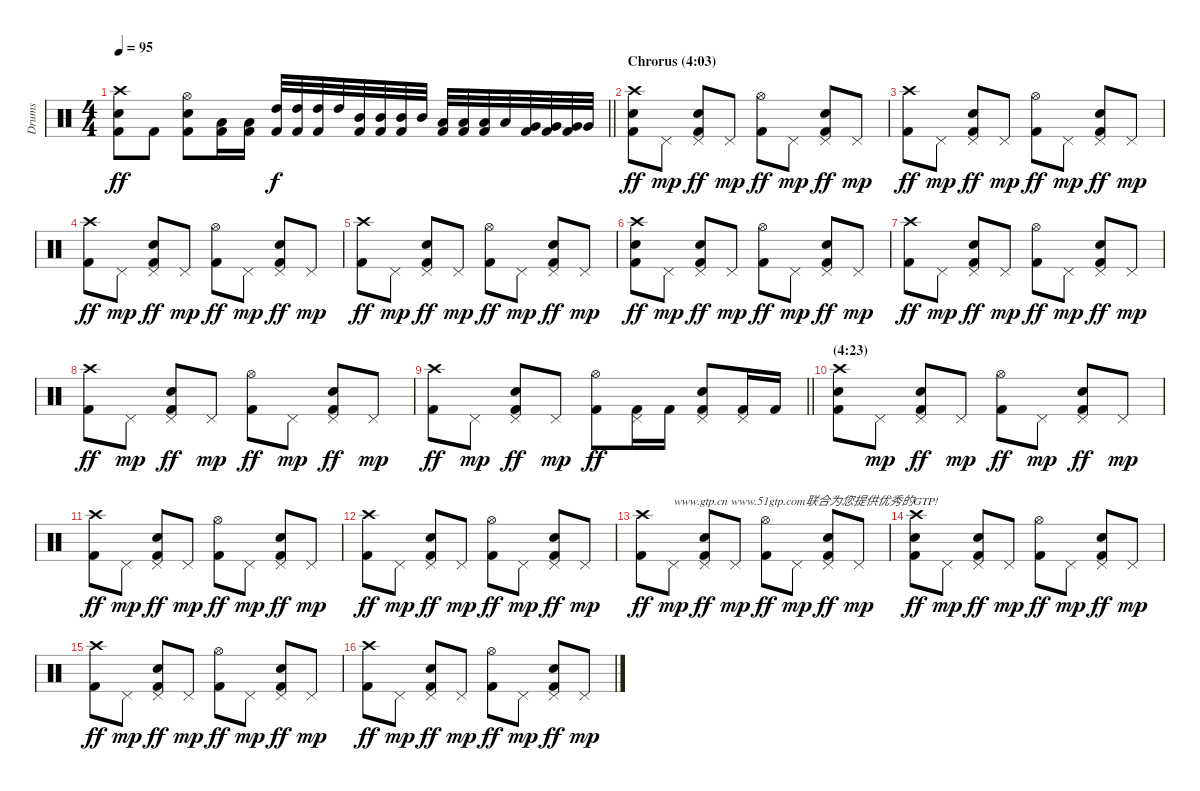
\track ("Drums" "Drums") {instrument percussion}
\staff {score}
\articulation defaults
\ts (4 4)
\tempo 95
\clef neutral
\barLineRight lightlight
\ks c
("Crash high (hit)" "Snare (hit) 2" "Kick (hit) 2").8{dy ff} "Kick (hit) 2".8 ("Hi-Hat (open)" "Snare (hit) 2" "Kick (hit) 2").8 ("Low Tom (hit)" "Kick (hit) 2").16 ("Low Tom (hit)" "Kick (hit) 2").16 ("High Tom (hit)" "Kick (hit) 2").32{dy f} ("High Tom (hit)" "Kick (hit) 2").32 ("High Tom (hit)" "Kick (hit) 2").32 "High Tom (hit)".32 ("Mid Tom (hit)" "Kick (hit) 2").32 ("Mid Tom (hit)" "Kick (hit) 2").32 ("Mid Tom (hit)" "Kick (hit) 2").32 "Mid Tom (hit)".32 ("Low Tom (hit)" "Kick (hit) 2").32 ("Low Tom (hit)" "Kick (hit) 2").32 ("Low Tom (hit)" "Kick (hit) 2").32 "Low Tom (hit)".32 ("Very Low Tom (hit)" "Kick (hit) 2").32 ("Very Low Tom (hit)" "Kick (hit) 2").32 ("Very Low Tom (hit)" "Kick (hit) 2").32 "Very Low Tom (hit)".32 |
\section ("" "Chrorus (4:03)")
("Crash high (hit)" "Snare (hit) 2" "Kick (hit) 2").8{dy ff} "Pedal Hi-Hat (hit)".8{dy mp} ("Pedal Hi-Hat (hit)" "Snare (hit) 2" "Kick (hit) 2").8{dy ff} "Pedal Hi-Hat (hit)".8{dy mp} ("Hi-Hat (open)" "Kick (hit) 2").8{dy ff} "Pedal Hi-Hat (hit)".8{dy mp} ("Pedal Hi-Hat (hit)" "Snare (hit) 2" "Kick (hit) 2").8{dy ff} "Pedal Hi-Hat (hit)".8{dy mp} |
("Crash high (hit)" "Kick (hit) 2").8{dy ff} "Pedal Hi-Hat (hit)".8{dy mp} ("Pedal Hi-Hat (hit)" "Snare (hit) 2" "Kick (hit) 2").8{dy ff} "Pedal Hi-Hat (hit)".8{dy mp} ("Hi-Hat (open)" "Kick (hit) 2").8{dy ff} "Pedal Hi-Hat (hit)".8{dy mp} ("Pedal Hi-Hat (hit)" "Snare (hit) 2" "Kick (hit) 2").8{dy ff} "Pedal Hi-Hat (hit)".8{dy mp} |
("Crash high (hit)" "Kick (hit) 2").8{dy ff} "Pedal Hi-Hat (hit)".8{dy mp} ("Pedal Hi-Hat (hit)" "Snare (hit) 2" "Kick (hit) 2").8{dy ff} "Pedal Hi-Hat (hit)".8{dy mp} ("Hi-Hat (open)" "Kick (hit) 2").8{dy ff} "Pedal Hi-Hat (hit)".8{dy mp} ("Pedal Hi-Hat (hit)" "Snare (hit) 2" "Kick (hit) 2").8{dy ff} "Pedal Hi-Hat (hit)".8{dy mp} |
("Crash high (hit)" "Kick (hit) 2").8{dy ff} "Pedal Hi-Hat (hit)".8{dy mp} ("Pedal Hi-Hat (hit)" "Snare (hit) 2" "Kick (hit) 2").8{dy ff} "Pedal Hi-Hat (hit)".8{dy mp} ("Hi-Hat (open)" "Kick (hit) 2").8{dy ff} "Pedal Hi-Hat (hit)".8{dy mp} ("Pedal Hi-Hat (hit)" "Snare (hit) 2" "Kick (hit) 2").8{dy ff} "Pedal Hi-Hat (hit)".8{dy mp} |
("Crash high (hit)" "Snare (hit) 2" "Kick (hit) 2").8{dy ff} "Pedal Hi-Hat (hit)".8{dy mp} ("Pedal Hi-Hat (hit)" "Snare (hit) 2" "Kick (hit) 2").8{dy ff} "Pedal Hi-Hat (hit)".8{dy mp} ("Hi-Hat (open)" "Kick (hit) 2").8{dy ff} "Pedal Hi-Hat (hit)".8{dy mp} ("Pedal Hi-Hat (hit)" "Snare (hit) 2" "Kick (hit) 2").8{dy ff} "Pedal Hi-Hat (hit)".8{dy mp} |
("Crash high (hit)" "Kick (hit) 2").8{dy ff} "Pedal Hi-Hat (hit)".8{dy mp} ("Pedal Hi-Hat (hit)" "Snare (hit) 2" "Kick (hit) 2").8{dy ff} "Pedal Hi-Hat (hit)".8{dy mp} ("Hi-Hat (open)" "Kick (hit) 2").8{dy ff} "Pedal Hi-Hat (hit)".8{dy mp} ("Pedal Hi-Hat (hit)" "Snare (hit) 2" "Kick (hit) 2").8{dy ff} "Pedal Hi-Hat (hit)".8{dy mp} |
("Crash high (hit)" "Kick (hit) 2").8{dy ff} "Pedal Hi-Hat (hit)".8{dy mp} ("Pedal Hi-Hat (hit)" "Snare (hit) 2" "Kick (hit) 2").8{dy ff} "Pedal Hi-Hat (hit)".8{dy mp} ("Hi-Hat (open)" "Kick (hit) 2").8{dy ff} "Pedal Hi-Hat (hit)".8{dy mp} ("Pedal Hi-Hat (hit)" "Snare (hit) 2" "Kick (hit) 2").8{dy ff} "Pedal Hi-Hat (hit)".8{dy mp} |
\barLineRight lightlight
("Crash high (hit)" "Kick (hit) 2").8{dy ff} "Pedal Hi-Hat (hit)".8{dy mp} ("Pedal Hi-Hat (hit)" "Snare (hit) 2" "Kick (hit) 2").8{dy ff} "Pedal Hi-Hat (hit)".8{dy mp} ("Hi-Hat (open)" "Kick (hit) 2").8{dy ff} ("Pedal Hi-Hat (hit)" "Kick (hit) 2").16 "Kick (hit) 2".16 ("Pedal Hi-Hat (hit)" "Snare (hit) 2" "Kick (hit) 2").8 ("Pedal Hi-Hat (hit)" "Kick (hit) 2").16 "Kick (hit) 2".16 |
\section ("" "(4:23)")
("Crash high (hit)" "Snare (hit) 2" "Kick (hit) 2").8 "Pedal Hi-Hat (hit)".8{dy mp} ("Pedal Hi-Hat (hit)" "Snare (hit) 2" "Kick (hit) 2").8{dy ff} "Pedal Hi-Hat (hit)".8{dy mp} ("Hi-Hat (open)" "Kick (hit) 2").8{dy ff} "Pedal Hi-Hat (hit)".8{dy mp} ("Pedal Hi-Hat (hit)" "Snare (hit) 2" "Kick (hit) 2").8{dy ff} "Pedal Hi-Hat (hit)".8{dy mp} |
("Crash high (hit)" "Kick (hit) 2").8{dy ff} "Pedal Hi-Hat (hit)".8{dy mp} ("Pedal Hi-Hat (hit)" "Snare (hit) 2" "Kick (hit) 2").8{dy ff} "Pedal Hi-Hat (hit)".8{dy mp} ("Hi-Hat (open)" "Kick (hit) 2").8{dy ff} "Pedal Hi-Hat (hit)".8{dy mp} ("Pedal Hi-Hat (hit)" "Snare (hit) 2" "Kick (hit) 2").8{dy ff} "Pedal Hi-Hat (hit)".8{dy mp} |
("Crash high (hit)" "Kick (hit) 2").8{dy ff} "Pedal Hi-Hat (hit)".8{dy mp} ("Pedal Hi-Hat (hit)" "Snare (hit) 2" "Kick (hit) 2").8{dy ff} "Pedal Hi-Hat (hit)".8{dy mp} ("Hi-Hat (open)" "Kick (hit) 2").8{dy ff} "Pedal Hi-Hat (hit)".8{dy mp} ("Pedal Hi-Hat (hit)" "Snare (hit) 2" "Kick (hit) 2").8{dy ff} "Pedal Hi-Hat (hit)".8{dy mp} |
("Crash high (hit)" "Kick (hit) 2").8{dy ff} "Pedal Hi-Hat (hit)".8{txt "www.gtp.cn www.51gtp.com联合为您提供优秀的GTP!" dy mp} ("Pedal Hi-Hat (hit)" "Snare (hit) 2" "Kick (hit) 2").8{dy ff} "Pedal Hi-Hat (hit)".8{dy mp} ("Hi-Hat (open)" "Kick (hit) 2").8{dy ff} "Pedal Hi-Hat (hit)".8{dy mp} ("Pedal Hi-Hat (hit)" "Snare (hit) 2" "Kick (hit) 2").8{dy ff} "Pedal Hi-Hat (hit)".8{dy mp} |
("Crash high (hit)" "Snare (hit) 2" "Kick (hit) 2").8{dy ff} "Pedal Hi-Hat (hit)".8{dy mp} ("Pedal Hi-Hat (hit)" "Snare (hit) 2" "Kick (hit) 2").8{dy ff} "Pedal Hi-Hat (hit)".8{dy mp} ("Hi-Hat (open)" "Kick (hit) 2").8{dy ff} "Pedal Hi-Hat (hit)".8{dy mp} ("Pedal Hi-Hat (hit)" "Snare (hit) 2" "Kick (hit) 2").8{dy ff} "Pedal Hi-Hat (hit)".8{dy mp} |
("Crash high (hit)" "Kick (hit) 2").8{dy ff} "Pedal Hi-Hat (hit)".8{dy mp} ("Pedal Hi-Hat (hit)" "Snare (hit) 2" "Kick (hit) 2").8{dy ff} "Pedal Hi-Hat (hit)".8{dy mp} ("Hi-Hat (open)" "Kick (hit) 2").8{dy ff} "Pedal Hi-Hat (hit)".8{dy mp} ("Pedal Hi-Hat (hit)" "Snare (hit) 2" "Kick (hit) 2").8{dy ff} "Pedal Hi-Hat (hit)".8{dy mp} |
("Crash high (hit)" "Kick (hit) 2").8{dy ff} "Pedal Hi-Hat (hit)".8{dy mp} ("Pedal Hi-Hat (hit)" "Snare (hit) 2" "Kick (hit) 2").8{dy ff} "Pedal Hi-Hat (hit)".8{dy mp} ("Hi-Hat (open)" "Kick (hit) 2").8{dy ff} "Pedal Hi-Hat (hit)".8{dy mp} ("Pedal Hi-Hat (hit)" "Snare (hit) 2" "Kick (hit) 2").8{dy ff} "Pedal Hi-Hat (hit)".8{dy mp}
